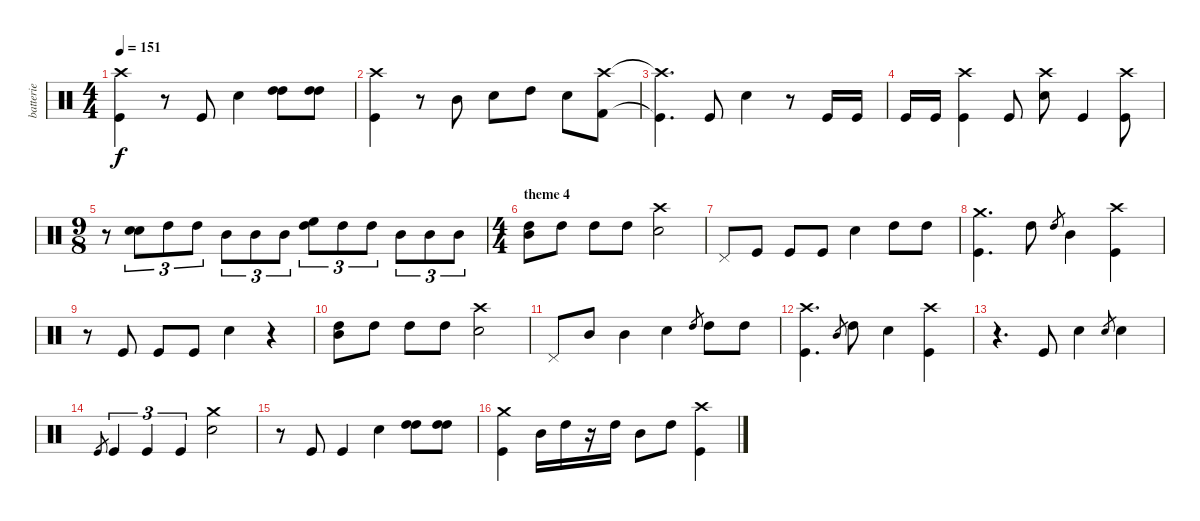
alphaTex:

\track ("batterie" "batterie") {instrument percussion}
\staff {score}
\articulation defaults
\ts (4 4)
\tempo 151
\clef neutral
\ks c
("Crash high (hit)" "Kick (hit)").4{dy f} r.8 "Kick (hit)".8 "Snare (hit) 2".4 ("High Tom (hit)" "High Tom (hit)").8 ("High Tom (hit)" "High Tom (hit)").8 |
("Crash high (hit)" "Kick (hit)").4 r.8 "Mid Tom (hit)".8 "Snare (hit) 2".8 "High Tom (hit)".8 "Snare (hit) 2".8 ("Crash high (hit)" "Kick (hit) 2").8 |
("Crash high (hit)"{t} "Kick (hit)"{t}).4{d} "Kick (hit)".8 "Snare (hit) 2".4 r.8 "Kick (hit)".16 "Kick (hit)".16 |
"Kick (hit)".16 "Kick (hit)".16 ("Crash high (hit)" "Kick (hit)").4 "Kick (hit)".8 ("Crash high (hit)" "Snare (hit) 2").8 "Kick (hit)".4 ("Crash high (hit)" "Kick (hit)").8 |
\ts (9 8)
r.8 ("Snare (hit) 2" "Snare (hit) 2").8{tu (3 2)} "High Tom (hit)".8{tu (3 2)} "High Tom (hit)".8{tu (3 2)} "Mid Tom (hit)".8{tu (3 2)} "Mid Tom (hit)".8{tu (3 2)} "Mid Tom (hit)".8{tu (3 2)} ("High Floor Tom (hit)" "High Tom (hit)").8{tu (3 2)} "High Tom (hit)".8{tu (3 2)} "High Tom (hit)".8{tu (3 2)} "Mid Tom (hit)".8{tu (3 2)} "Mid Tom (hit)".8{tu (3 2)} "Mid Tom (hit)".8{tu (3 2)} |
\ts (4 4)
\section ("" "theme 4")
("Mid Tom (hit)" "High Tom (hit)").8 "High Tom (hit)".8 "High Tom (hit)".8 "High Tom (hit)".8 ("Crash high (hit)" "Snare (hit) 2").2 |
"Pedal Hi-Hat (hit)".8 "Kick (hit)".8 "Kick (hit)".8 "Kick (hit)".8 "Snare (hit) 2".4 "High Tom (hit)".8 "High Tom (hit)".8 |
("Crash medium (hit)" "Kick (hit)").4{d} "High Tom (hit)".8 "High Tom (hit)".8{gr} "Mid Tom (hit)".4 ("Crash high (hit)" "Kick (hit)").4 |
r.8 "Kick (hit)".8 "Kick (hit)".8 "Kick (hit)".8 "Snare (hit) 2".4 r.4 |
("Mid Tom (hit)" "High Tom (hit)").8 "High Tom (hit)".8 "High Tom (hit)".8 "High Tom (hit)".8 ("Crash high (hit)" "Snare (hit) 2").2 |
"Pedal Hi-Hat (hit)".8 "Mid Tom (hit)".8 "Mid Tom (hit)".4 "Snare (hit) 2".4 "High Tom (hit)".8{gr} "High Tom (hit)".8 "High Tom (hit)".8 |
("Crash high (hit)" "Kick (hit)").4{d} "Mid Tom (hit)".8{gr} "High Tom (hit)".8 "Snare (hit) 2".4 ("Crash high (hit)" "Kick (hit)").4 |
r.4{d} "Kick (hit)".8 "Snare (hit) 2".4 "Snare (hit) 2".8{gr} "Snare (hit) 2".4 |
"Kick (hit)".8{gr} "Kick (hit)".4{tu (3 2)} "Kick (hit)".4{tu (3 2)} "Kick (hit)".4{tu (3 2)} ("Crash medium (hit)" "Snare (hit) 2").2 |
r.8 "Kick (hit)".8 "Kick (hit)".4 "Snare (hit) 2".4 ("High Tom (hit)" "High Tom (hit)").8 ("High Tom (hit)" "High Tom (hit)").8 |
("Crash medium (hit)" "Kick (hit)").4 "Mid Tom (hit)".16 "High Tom (hit)".16 r.16 "High Tom (hit)".16 "Mid Tom (hit)".8 "High Tom (hit)".8 ("Crash high (hit)" "Kick (hit)").4
